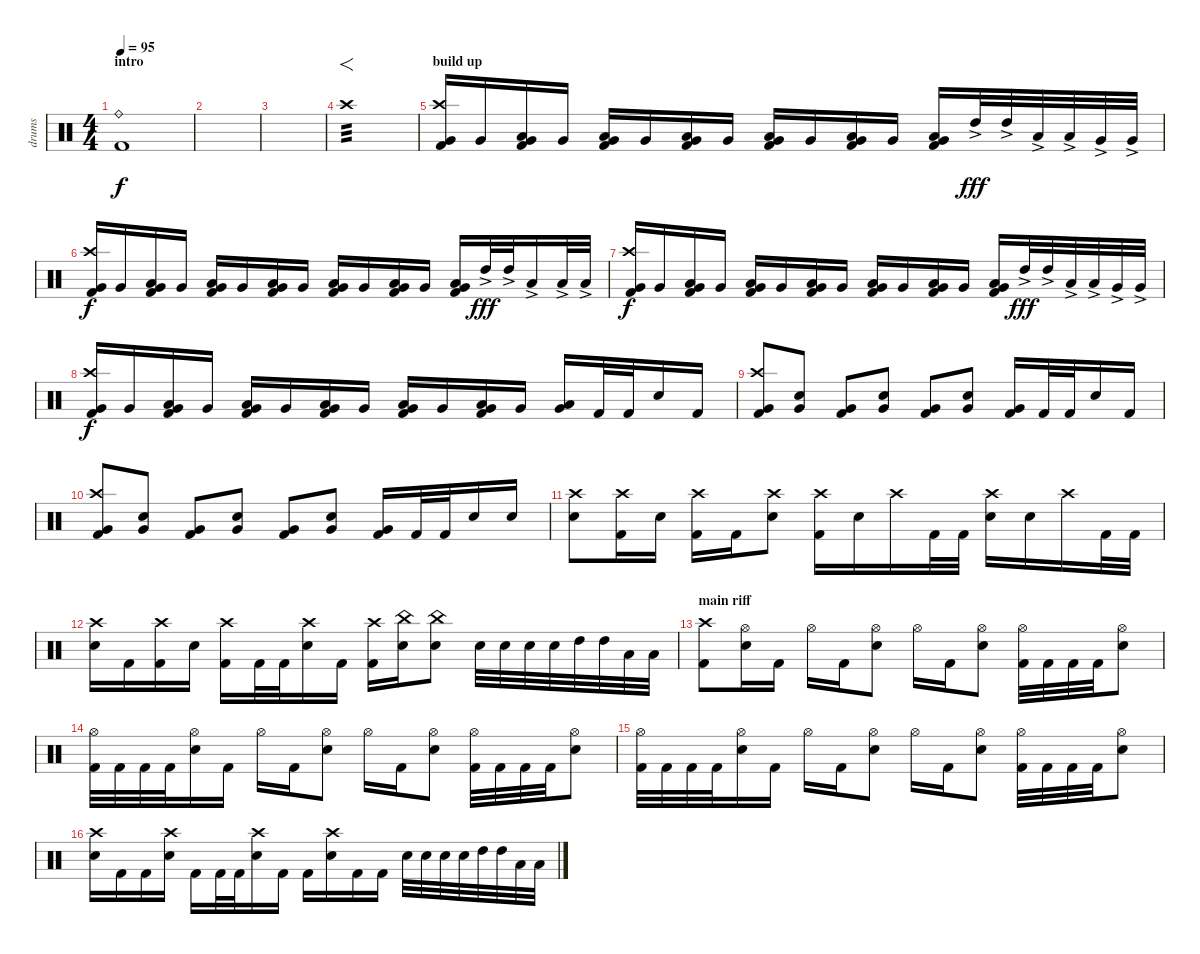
\track ("drums" "drums") {instrument percussion}
\staff {score}
\articulation defaults
\ts (4 4)
\section ("" "intro")
\tempo 95
\clef neutral
\ks c
("Ride (bell)" "Kick (hit) 2").1{dy f} |
|
|
"Crash high (hit)".1{f tp 3} |
\section ("" "build up")
("Crash high (hit)" "Very Low Tom (hit)" "Kick (hit) 2").16 "Very Low Tom (hit)".16 ("Low Tom (hit)" "Very Low Tom (hit)" "Kick (hit) 2").16 "Very Low Tom (hit)".16 ("Low Tom (hit)" "Very Low Tom (hit)" "Kick (hit) 2").16 "Very Low Tom (hit)".16 ("Low Tom (hit)" "Very Low Tom (hit)" "Kick (hit) 2").16 "Very Low Tom (hit)".16 ("Low Tom (hit)" "Very Low Tom (hit)" "Kick (hit) 2").16 "Very Low Tom (hit)".16 ("Low Tom (hit)" "Very Low Tom (hit)" "Kick (hit) 2").16 "Very Low Tom (hit)".16 ("Low Tom (hit)" "Very Low Tom (hit)" "Kick (hit) 2").16 "High Tom (hit)"{ac}.32{dy fff} "High Tom (hit)"{ac}.32 "Low Tom (hit)"{ac}.32 "Low Tom (hit)"{ac}.32 "Very Low Tom (hit)"{ac}.32 "Very Low Tom (hit)"{ac}.32 |
("Crash high (hit)" "Very Low Tom (hit)" "Kick (hit) 2").16{dy f} "Very Low Tom (hit)".16 ("Low Tom (hit)" "Very Low Tom (hit)" "Kick (hit) 2").16 "Very Low Tom (hit)".16 ("Low Tom (hit)" "Very Low Tom (hit)" "Kick (hit) 2").16 "Very Low Tom (hit)".16 ("Low Tom (hit)" "Very Low Tom (hit)" "Kick (hit) 2").16 "Very Low Tom (hit)".16 ("Low Tom (hit)" "Very Low Tom (hit)" "Kick (hit) 2").16 "Very Low Tom (hit)".16 ("Low Tom (hit)" "Very Low Tom (hit)" "Kick (hit) 2").16 "Very Low Tom (hit)".16 ("Low Tom (hit)" "Very Low Tom (hit)" "Kick (hit) 2").16 "High Tom (hit)"{ac}.32{dy fff} "High Tom (hit)"{ac}.32 "Low Tom (hit)"{ac}.16 "Low Tom (hit)"{ac}.32 "Low Tom (hit)"{ac}.32 |
("Crash high (hit)" "Very Low Tom (hit)" "Kick (hit) 2").16{dy f} "Very Low Tom (hit)".16 ("Low Tom (hit)" "Very Low Tom (hit)" "Kick (hit) 2").16 "Very Low Tom (hit)".16 ("Low Tom (hit)" "Very Low Tom (hit)" "Kick (hit) 2").16 "Very Low Tom (hit)".16 ("Low Tom (hit)" "Very Low Tom (hit)" "Kick (hit) 2").16 "Very Low Tom (hit)".16 ("Low Tom (hit)" "Very Low Tom (hit)" "Kick (hit) 2").16 "Very Low Tom (hit)".16 ("Low Tom (hit)" "Very Low Tom (hit)" "Kick (hit) 2").16 "Very Low Tom (hit)".16 ("Low Tom (hit)" "Very Low Tom (hit)" "Kick (hit) 2").16 "High Tom (hit)"{ac}.32{dy fff} "High Tom (hit)"{ac}.32 "Low Tom (hit)"{ac}.32 "Low Tom (hit)"{ac}.32 "Very Low Tom (hit)"{ac}.32 "Very Low Tom (hit)"{ac}.32 |
("Crash high (hit)" "Very Low Tom (hit)" "Kick (hit) 2").16{dy f} "Very Low Tom (hit)".16 ("Low Tom (hit)" "Very Low Tom (hit)" "Kick (hit) 2").16 "Very Low Tom (hit)".16 ("Low Tom (hit)" "Very Low Tom (hit)" "Kick (hit) 2").16 "Very Low Tom (hit)".16 ("Low Tom (hit)" "Very Low Tom (hit)" "Kick (hit) 2").16 "Very Low Tom (hit)".16 ("Low Tom (hit)" "Very Low Tom (hit)" "Kick (hit) 2").16 "Very Low Tom (hit)".16 ("Low Tom (hit)" "Very Low Tom (hit)" "Kick (hit) 2").16 "Very Low Tom (hit)".16 ("Low Tom (hit)" "Very Low Tom (hit)").16 "Kick (hit) 2".32 "Kick (hit) 2".32 "Electric Snare (hit)".16 "Kick (hit) 2".16 |
("Crash high (hit)" "Very Low Tom (hit)" "Kick (hit) 2").8 ("Electric Snare (hit)" "Very Low Tom (hit)").8 ("Very Low Tom (hit)" "Kick (hit) 2").8 ("Electric Snare (hit)" "Very Low Tom (hit)").8 ("Very Low Tom (hit)" "Kick (hit) 2").8 ("Electric Snare (hit)" "Very Low Tom (hit)").8 ("Very Low Tom (hit)" "Kick (hit) 2").16 "Kick (hit) 2".32 "Kick (hit) 2".32 "Electric Snare (hit)".16 "Kick (hit) 2".16 |
("Crash high (hit)" "Very Low Tom (hit)" "Kick (hit) 2").8 ("Electric Snare (hit)" "Very Low Tom (hit)").8 ("Very Low Tom (hit)" "Kick (hit) 2").8 ("Electric Snare (hit)" "Very Low Tom (hit)").8 ("Very Low Tom (hit)" "Kick (hit) 2").8 ("Electric Snare (hit)" "Very Low Tom (hit)").8 ("Very Low Tom (hit)" "Kick (hit) 2").16 "Kick (hit) 2".32 "Kick (hit) 2".32 "Electric Snare (hit)".16 "Electric Snare (hit)".16 |
("Crash high (hit)" "Electric Snare (hit)").8 ("Crash high (hit)" "Kick (hit) 2").16 "Electric Snare (hit)".16 ("Crash high (hit)" "Kick (hit) 2").16 "Kick (hit) 2".16 ("Crash high (hit)" "Electric Snare (hit)").8 ("Crash high (hit)" "Kick (hit) 2").16 "Electric Snare (hit)".16 "Crash high (hit)".16 "Kick (hit) 2".32 "Kick (hit) 2".32 ("Crash high (hit)" "Electric Snare (hit)").16 "Electric Snare (hit)".16 "Crash high (hit)".16 "Kick (hit) 2".32 "Kick (hit) 2".32 |
("Crash high (hit)" "Electric Snare (hit)").16 "Kick (hit) 2".16 ("Crash high (hit)" "Kick (hit) 2").16 "Electric Snare (hit)".16 ("Crash high (hit)" "Kick (hit) 2").16 "Kick (hit) 2".32 "Kick (hit) 2".32 ("Crash high (hit)" "Electric Snare (hit)").16 "Kick (hit) 2".16 ("Crash high (hit)" "Kick (hit) 2").16 ("China (hit)" "Electric Snare (hit)").16 ("China (hit)" "Electric Snare (hit)").8 "Electric Snare (hit)".32 "Electric Snare (hit)".32 "Electric Snare (hit)".32 "Electric Snare (hit)".32 "High Tom (hit)".32 "High Tom (hit)".32 "Low Tom (hit)".32 "Low Tom (hit)".32 |
\section ("" "main riff")
("Crash high (hit)" "Kick (hit) 2").8 ("Hi-Hat (open)" "Electric Snare (hit)").16 "Kick (hit) 2".16 "Hi-Hat (open)".16 "Kick (hit) 2".16 ("Hi-Hat (open)" "Electric Snare (hit)").8 "Hi-Hat (open)".16 "Kick (hit) 2".16 ("Hi-Hat (open)" "Electric Snare (hit)").8 ("Hi-Hat (open)" "Kick (hit) 2").32 "Kick (hit) 2".32 "Kick (hit) 2".32 "Kick (hit) 2".32 ("Hi-Hat (open)" "Electric Snare (hit)").8 |
("Hi-Hat (open)" "Kick (hit) 2").32 "Kick (hit) 2".32 "Kick (hit) 2".32 "Kick (hit) 2".32 ("Hi-Hat (open)" "Electric Snare (hit)").16 "Kick (hit) 2".16 "Hi-Hat (open)".16 "Kick (hit) 2".16 ("Hi-Hat (open)" "Electric Snare (hit)").8 "Hi-Hat (open)".16 "Kick (hit) 2".16 ("Hi-Hat (open)" "Electric Snare (hit)").8 ("Hi-Hat (open)" "Kick (hit) 2").32 "Kick (hit) 2".32 "Kick (hit) 2".32 "Kick (hit) 2".32 ("Hi-Hat (open)" "Electric Snare (hit)").8 |
("Hi-Hat (open)" "Kick (hit) 2").32 "Kick (hit) 2".32 "Kick (hit) 2".32 "Kick (hit) 2".32 ("Hi-Hat (open)" "Electric Snare (hit)").16 "Kick (hit) 2".16 "Hi-Hat (open)".16 "Kick (hit) 2".16 ("Hi-Hat (open)" "Electric Snare (hit)").8 "Hi-Hat (open)".16 "Kick (hit) 2".16 ("Hi-Hat (open)" "Electric Snare (hit)").8 ("Hi-Hat (open)" "Kick (hit) 2").32 "Kick (hit) 2".32 "Kick (hit) 2".32 "Kick (hit) 2".32 ("Hi-Hat (open)" "Electric Snare (hit)").8 |
("Crash high (hit)" "Electric Snare (hit)").16 "Kick (hit) 2".16 "Kick (hit) 2".16 ("Crash high (hit)" "Electric Snare (hit)").16 "Kick (hit) 2".16 "Kick (hit) 2".32 "Kick (hit) 2".32 ("Crash high (hit)" "Electric Snare (hit)").16 "Kick (hit) 2".16 "Kick (hit) 2".16 ("Crash high (hit)" "Electric Snare (hit)").16 "Kick (hit) 2".16 "Kick (hit) 2".16 "Electric Snare (hit)".32 "Electric Snare (hit)".32 "Electric Snare (hit)".32 "Electric Snare (hit)".32 "High Tom (hit)".32 "High Tom (hit)".32 "Low Tom (hit)".32 "Low Tom (hit)".32
